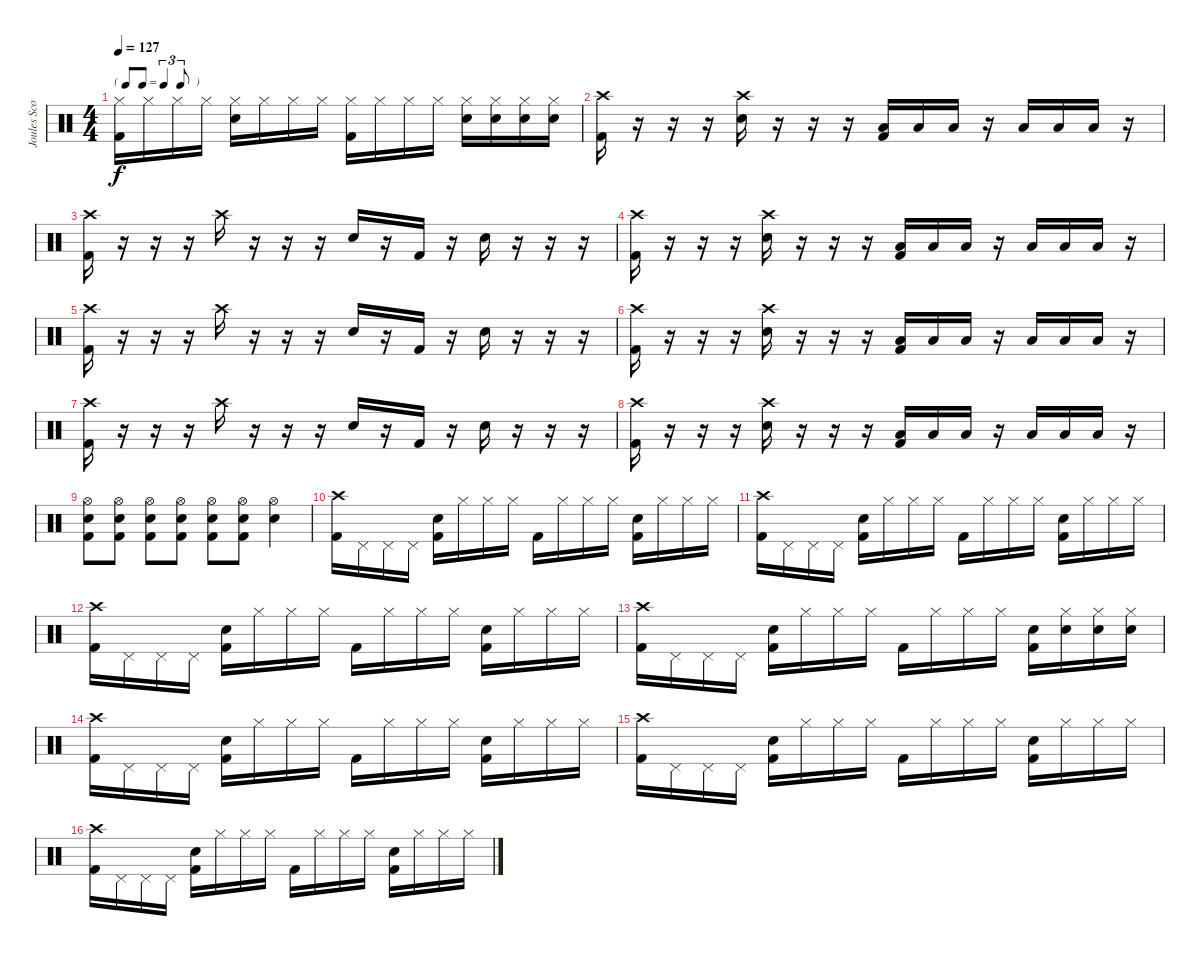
\track ("Joules Scott-Key" "Joules Sco") {instrument percussion}
\staff {score}
\articulation defaults
\ts (4 4)
\tf triplet8th
\tempo 127
\clef neutral
\ks c
("Hi-Hat (closed)" "Kick (hit) 2").16{dy f} "Hi-Hat (closed)".16 "Hi-Hat (closed)".16 "Hi-Hat (closed)".16 ("Hi-Hat (closed)" "Electric Snare (hit)").16 "Hi-Hat (closed)".16 "Hi-Hat (closed)".16 "Hi-Hat (closed)".16 ("Hi-Hat (closed)" "Kick (hit) 2").16 "Hi-Hat (closed)".16 "Hi-Hat (closed)".16 "Hi-Hat (closed)".16 ("Hi-Hat (closed)" "Electric Snare (hit)").16 ("Hi-Hat (closed)" "Electric Snare (hit)").16 ("Hi-Hat (closed)" "Electric Snare (hit)").16 ("Hi-Hat (closed)" "Electric Snare (hit)").16 |
("Crash high (hit)" "Kick (hit) 2").16 r.16 r.16 r.16 ("Crash high (hit)" "Electric Snare (hit)").16 r.16 r.16 r.16 ("Low Tom (hit)" "Kick (hit) 2").16 "Low Tom (hit)".16 "Low Tom (hit)".16 r.16 "Low Tom (hit)".16 "Low Tom (hit)".16 "Low Tom (hit)".16 r.16 |
("Crash high (hit)" "Kick (hit) 2").16 r.16 r.16 r.16 "Crash high (hit)".16 r.16 r.16 r.16 "Electric Snare (hit)".16 r.16 "Kick (hit) 2".16 r.16 "Electric Snare (hit)".16 r.16 r.16 r.16 |
("Crash high (hit)" "Kick (hit) 2").16 r.16 r.16 r.16 ("Crash high (hit)" "Electric Snare (hit)").16 r.16 r.16 r.16 ("Low Tom (hit)" "Kick (hit) 2").16 "Low Tom (hit)".16 "Low Tom (hit)".16 r.16 "Low Tom (hit)".16 "Low Tom (hit)".16 "Low Tom (hit)".16 r.16 |
("Crash high (hit)" "Kick (hit) 2").16 r.16 r.16 r.16 "Crash high (hit)".16 r.16 r.16 r.16 "Electric Snare (hit)".16 r.16 "Kick (hit) 2".16 r.16 "Electric Snare (hit)".16 r.16 r.16 r.16 |
("Crash high (hit)" "Kick (hit) 2").16 r.16 r.16 r.16 ("Crash high (hit)" "Electric Snare (hit)").16 r.16 r.16 r.16 ("Low Tom (hit)" "Kick (hit) 2").16 "Low Tom (hit)".16 "Low Tom (hit)".16 r.16 "Low Tom (hit)".16 "Low Tom (hit)".16 "Low Tom (hit)".16 r.16 |
("Crash high (hit)" "Kick (hit) 2").16 r.16 r.16 r.16 "Crash high (hit)".16 r.16 r.16 r.16 "Electric Snare (hit)".16 r.16 "Kick (hit) 2".16 r.16 "Electric Snare (hit)".16 r.16 r.16 r.16 |
("Crash high (hit)" "Kick (hit) 2").16 r.16 r.16 r.16 ("Crash high (hit)" "Electric Snare (hit)").16 r.16 r.16 r.16 ("Low Tom (hit)" "Kick (hit) 2").16 "Low Tom (hit)".16 "Low Tom (hit)".16 r.16 "Low Tom (hit)".16 "Low Tom (hit)".16 "Low Tom (hit)".16 r.16 |
("Hi-Hat (open)" "Electric Snare (hit)" "Kick (hit) 2").8 ("Hi-Hat (open)" "Electric Snare (hit)" "Kick (hit) 2").8 ("Hi-Hat (open)" "Electric Snare (hit)" "Kick (hit) 2").8 ("Hi-Hat (open)" "Electric Snare (hit)" "Kick (hit) 2").8 ("Hi-Hat (open)" "Electric Snare (hit)" "Kick (hit) 2").8 ("Hi-Hat (open)" "Electric Snare (hit)" "Kick (hit) 2").8 ("Hi-Hat (open)" "Electric Snare (hit)").4 |
("Crash high (hit)" "Kick (hit) 2").16 "Pedal Hi-Hat (hit)".16 "Pedal Hi-Hat (hit)".16 "Pedal Hi-Hat (hit)".16 ("Electric Snare (hit)" "Kick (hit) 2").16 "Hi-Hat (closed)".16 "Hi-Hat (closed)".16 "Hi-Hat (closed)".16 "Kick (hit) 2".16 "Hi-Hat (closed)".16 "Hi-Hat (closed)".16 "Hi-Hat (closed)".16 ("Electric Snare (hit)" "Kick (hit) 2").16 "Hi-Hat (closed)".16 "Hi-Hat (closed)".16 "Hi-Hat (closed)".16 |
("Crash high (hit)" "Kick (hit) 2").16 "Pedal Hi-Hat (hit)".16 "Pedal Hi-Hat (hit)".16 "Pedal Hi-Hat (hit)".16 ("Electric Snare (hit)" "Kick (hit) 2").16 "Hi-Hat (closed)".16 "Hi-Hat (closed)".16 "Hi-Hat (closed)".16 "Kick (hit) 2".16 "Hi-Hat (closed)".16 "Hi-Hat (closed)".16 "Hi-Hat (closed)".16 ("Electric Snare (hit)" "Kick (hit) 2").16 "Hi-Hat (closed)".16 "Hi-Hat (closed)".16 "Hi-Hat (closed)".16 |
("Crash high (hit)" "Kick (hit) 2").16 "Pedal Hi-Hat (hit)".16 "Pedal Hi-Hat (hit)".16 "Pedal Hi-Hat (hit)".16 ("Electric Snare (hit)" "Kick (hit) 2").16 "Hi-Hat (closed)".16 "Hi-Hat (closed)".16 "Hi-Hat (closed)".16 "Kick (hit) 2".16 "Hi-Hat (closed)".16 "Hi-Hat (closed)".16 "Hi-Hat (closed)".16 ("Electric Snare (hit)" "Kick (hit) 2").16 "Hi-Hat (closed)".16 "Hi-Hat (closed)".16 "Hi-Hat (closed)".16 |
("Crash high (hit)" "Kick (hit) 2").16 "Pedal Hi-Hat (hit)".16 "Pedal Hi-Hat (hit)".16 "Pedal Hi-Hat (hit)".16 ("Electric Snare (hit)" "Kick (hit) 2").16 "Hi-Hat (closed)".16 "Hi-Hat (closed)".16 "Hi-Hat (closed)".16 "Kick (hit) 2".16 "Hi-Hat (closed)".16 "Hi-Hat (closed)".16 "Hi-Hat (closed)".16 ("Electric Snare (hit)" "Kick (hit) 2").16 ("Hi-Hat (closed)" "Electric Snare (hit)").16 ("Hi-Hat (closed)" "Electric Snare (hit)").16 ("Hi-Hat (closed)" "Electric Snare (hit)").16 |
("Crash high (hit)" "Kick (hit) 2").16 "Pedal Hi-Hat (hit)".16 "Pedal Hi-Hat (hit)".16 "Pedal Hi-Hat (hit)".16 ("Electric Snare (hit)" "Kick (hit) 2").16 "Hi-Hat (closed)".16 "Hi-Hat (closed)".16 "Hi-Hat (closed)".16 "Kick (hit) 2".16 "Hi-Hat (closed)".16 "Hi-Hat (closed)".16 "Hi-Hat (closed)".16 ("Electric Snare (hit)" "Kick (hit) 2").16 "Hi-Hat (closed)".16 "Hi-Hat (closed)".16 "Hi-Hat (closed)".16 |
("Crash high (hit)" "Kick (hit) 2").16 "Pedal Hi-Hat (hit)".16 "Pedal Hi-Hat (hit)".16 "Pedal Hi-Hat (hit)".16 ("Electric Snare (hit)" "Kick (hit) 2").16 "Hi-Hat (closed)".16 "Hi-Hat (closed)".16 "Hi-Hat (closed)".16 "Kick (hit) 2".16 "Hi-Hat (closed)".16 "Hi-Hat (closed)".16 "Hi-Hat (closed)".16 ("Electric Snare (hit)" "Kick (hit) 2").16 "Hi-Hat (closed)".16 "Hi-Hat (closed)".16 "Hi-Hat (closed)".16 |
("Crash high (hit)" "Kick (hit) 2").16 "Pedal Hi-Hat (hit)".16 "Pedal Hi-Hat (hit)".16 "Pedal Hi-Hat (hit)".16 ("Electric Snare (hit)" "Kick (hit) 2").16 "Hi-Hat (closed)".16 "Hi-Hat (closed)".16 "Hi-Hat (closed)".16 "Kick (hit) 2".16 "Hi-Hat (closed)".16 "Hi-Hat (closed)".16 "Hi-Hat (closed)".16 ("Electric Snare (hit)" "Kick (hit) 2").16 "Hi-Hat (closed)".16 "Hi-Hat (closed)".16 "Hi-Hat (closed)".16
